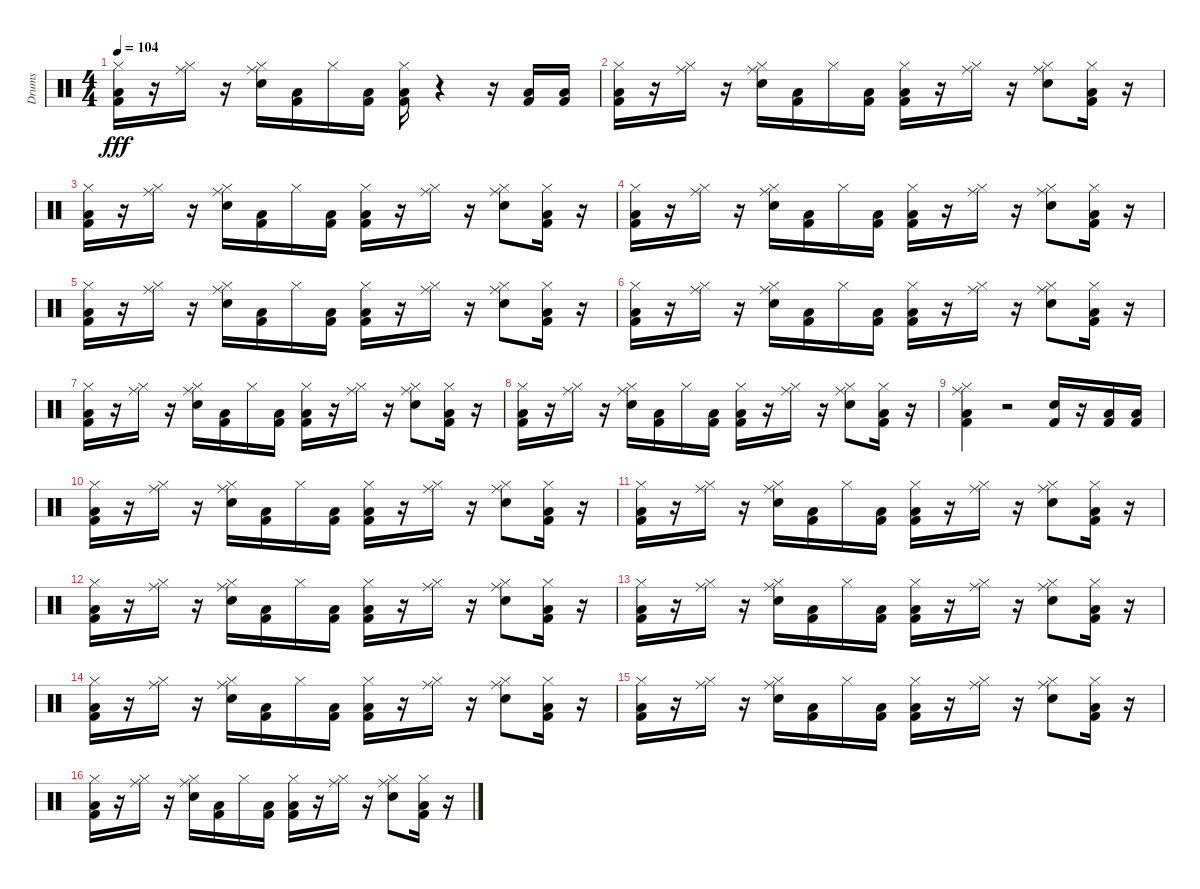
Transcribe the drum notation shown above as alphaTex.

\track ("Drums" "Drums") {instrument percussion}
\staff {score}
\articulation defaults
\ts (4 4)
\tempo 104
\clef neutral
\ks c
("Hi-Hat (closed)" "Kick (hit) 2" "Low Floor Tom (hit)").16{dy fff} r.16 ("Ride (middle)" "Hi-Hat (closed)").16 r.16 ("Hi-Hat (closed)" "Ride (middle)" "Electric Snare (hit)").16 ("Low Floor Tom (hit)" "Kick (hit) 2").16 "Hi-Hat (closed)".16 ("Kick (hit) 2" "Low Floor Tom (hit)").16 ("Kick (hit) 2" "Hi-Hat (closed)" "Low Floor Tom (hit)").16 r.4 r.16 ("Kick (hit) 2" "Low Floor Tom (hit)").16 ("Low Floor Tom (hit)" "Kick (hit) 2").16 |
("Kick (hit) 2" "Hi-Hat (closed)" "Low Floor Tom (hit)").16 r.16 ("Hi-Hat (closed)" "Ride (middle)").16 r.16 ("Ride (middle)" "Hi-Hat (closed)" "Electric Snare (hit)").16 ("Low Floor Tom (hit)" "Kick (hit) 2").16 "Hi-Hat (closed)".16 ("Low Floor Tom (hit)" "Kick (hit) 2").16 ("Kick (hit) 2" "Low Floor Tom (hit)" "Hi-Hat (closed)").16 r.16 ("Hi-Hat (closed)" "Ride (middle)").16 r.16 ("Hi-Hat (closed)" "Ride (middle)" "Electric Snare (hit)").8 ("Hi-Hat (closed)" "Low Floor Tom (hit)" "Kick (hit) 2").16 r.16 |
("Low Floor Tom (hit)" "Kick (hit) 2" "Hi-Hat (closed)").16 r.16 ("Ride (middle)" "Hi-Hat (closed)").16 r.16 ("Electric Snare (hit)" "Hi-Hat (closed)" "Ride (middle)").16 ("Low Floor Tom (hit)" "Kick (hit) 2").16 "Hi-Hat (closed)".16 ("Kick (hit) 2" "Low Floor Tom (hit)").16 ("Low Floor Tom (hit)" "Hi-Hat (closed)" "Kick (hit) 2").16 r.16 ("Ride (middle)" "Hi-Hat (closed)").16 r.16 ("Hi-Hat (closed)" "Ride (middle)" "Electric Snare (hit)").8 ("Kick (hit) 2" "Low Floor Tom (hit)" "Hi-Hat (closed)").16 r.16 |
("Hi-Hat (closed)" "Kick (hit) 2" "Low Floor Tom (hit)").16 r.16 ("Ride (middle)" "Hi-Hat (closed)").16 r.16 ("Electric Snare (hit)" "Hi-Hat (closed)" "Ride (middle)").16 ("Low Floor Tom (hit)" "Kick (hit) 2").16 "Hi-Hat (closed)".16 ("Kick (hit) 2" "Low Floor Tom (hit)").16 ("Hi-Hat (closed)" "Kick (hit) 2" "Low Floor Tom (hit)").16 r.16 ("Ride (middle)" "Hi-Hat (closed)").16 r.16 ("Electric Snare (hit)" "Hi-Hat (closed)" "Ride (middle)").8 ("Hi-Hat (closed)" "Low Floor Tom (hit)" "Kick (hit) 2").16 r.16 |
("Kick (hit) 2" "Low Floor Tom (hit)" "Hi-Hat (closed)").16 r.16 ("Hi-Hat (closed)" "Ride (middle)").16 r.16 ("Ride (middle)" "Electric Snare (hit)" "Hi-Hat (closed)").16 ("Low Floor Tom (hit)" "Kick (hit) 2").16 "Hi-Hat (closed)".16 ("Low Floor Tom (hit)" "Kick (hit) 2").16 ("Kick (hit) 2" "Low Floor Tom (hit)" "Hi-Hat (closed)").16 r.16 ("Hi-Hat (closed)" "Ride (middle)").16 r.16 ("Electric Snare (hit)" "Hi-Hat (closed)" "Ride (middle)").8 ("Kick (hit) 2" "Low Floor Tom (hit)" "Hi-Hat (closed)").16 r.16 |
("Low Floor Tom (hit)" "Kick (hit) 2" "Hi-Hat (closed)").16 r.16 ("Hi-Hat (closed)" "Ride (middle)").16 r.16 ("Hi-Hat (closed)" "Electric Snare (hit)" "Ride (middle)").16 ("Kick (hit) 2" "Low Floor Tom (hit)").16 "Hi-Hat (closed)".16 ("Kick (hit) 2" "Low Floor Tom (hit)").16 ("Kick (hit) 2" "Low Floor Tom (hit)" "Hi-Hat (closed)").16 r.16 ("Hi-Hat (closed)" "Ride (middle)").16 r.16 ("Hi-Hat (closed)" "Ride (middle)" "Electric Snare (hit)").8 ("Low Floor Tom (hit)" "Hi-Hat (closed)" "Kick (hit) 2").16 r.16 |
("Kick (hit) 2" "Hi-Hat (closed)" "Low Floor Tom (hit)").16 r.16 ("Hi-Hat (closed)" "Ride (middle)").16 r.16 ("Electric Snare (hit)" "Hi-Hat (closed)" "Ride (middle)").16 ("Low Floor Tom (hit)" "Kick (hit) 2").16 "Hi-Hat (closed)".16 ("Kick (hit) 2" "Low Floor Tom (hit)").16 ("Hi-Hat (closed)" "Kick (hit) 2" "Low Floor Tom (hit)").16 r.16 ("Ride (middle)" "Hi-Hat (closed)").16 r.16 ("Electric Snare (hit)" "Hi-Hat (closed)" "Ride (middle)").8 ("Low Floor Tom (hit)" "Hi-Hat (closed)" "Kick (hit) 2").16 r.16 |
("Low Floor Tom (hit)" "Hi-Hat (closed)" "Kick (hit) 2").16 r.16 ("Hi-Hat (closed)" "Ride (middle)").16 r.16 ("Ride (middle)" "Electric Snare (hit)" "Hi-Hat (closed)").16 ("Kick (hit) 2" "Low Floor Tom (hit)").16 "Hi-Hat (closed)".16 ("Kick (hit) 2" "Low Floor Tom (hit)").16 ("Hi-Hat (closed)" "Kick (hit) 2" "Low Floor Tom (hit)").16 r.16 ("Hi-Hat (closed)" "Ride (middle)").16 r.16 ("Hi-Hat (closed)" "Electric Snare (hit)" "Ride (middle)").8 ("Kick (hit) 2" "Hi-Hat (closed)" "Low Floor Tom (hit)").16 r.16 |
("Low Floor Tom (hit)" "Kick (hit) 2" "Hi-Hat (closed)" "Ride (middle)").4 r.2 ("Electric Snare (hit)" "Kick (hit) 2").16 r.16 ("Kick (hit) 2" "Low Floor Tom (hit)").16 ("Low Floor Tom (hit)" "Kick (hit) 2").16 |
("Hi-Hat (closed)" "Kick (hit) 2" "Low Floor Tom (hit)").16 r.16 ("Ride (middle)" "Hi-Hat (closed)").16 r.16 ("Electric Snare (hit)" "Hi-Hat (closed)" "Ride (middle)").16 ("Low Floor Tom (hit)" "Kick (hit) 2").16 "Hi-Hat (closed)".16 ("Low Floor Tom (hit)" "Kick (hit) 2").16 ("Low Floor Tom (hit)" "Hi-Hat (closed)" "Kick (hit) 2").16 r.16 ("Hi-Hat (closed)" "Ride (middle)").16 r.16 ("Hi-Hat (closed)" "Electric Snare (hit)" "Ride (middle)").8 ("Kick (hit) 2" "Low Floor Tom (hit)" "Hi-Hat (closed)").16 r.16 |
("Kick (hit) 2" "Low Floor Tom (hit)" "Hi-Hat (closed)").16 r.16 ("Ride (middle)" "Hi-Hat (closed)").16 r.16 ("Ride (middle)" "Electric Snare (hit)" "Hi-Hat (closed)").16 ("Kick (hit) 2" "Low Floor Tom (hit)").16 "Hi-Hat (closed)".16 ("Kick (hit) 2" "Low Floor Tom (hit)").16 ("Low Floor Tom (hit)" "Hi-Hat (closed)" "Kick (hit) 2").16 r.16 ("Ride (middle)" "Hi-Hat (closed)").16 r.16 ("Ride (middle)" "Electric Snare (hit)" "Hi-Hat (closed)").8 ("Kick (hit) 2" "Hi-Hat (closed)" "Low Floor Tom (hit)").16 r.16 |
("Low Floor Tom (hit)" "Kick (hit) 2" "Hi-Hat (closed)").16 r.16 ("Ride (middle)" "Hi-Hat (closed)").16 r.16 ("Ride (middle)" "Electric Snare (hit)" "Hi-Hat (closed)").16 ("Low Floor Tom (hit)" "Kick (hit) 2").16 "Hi-Hat (closed)".16 ("Low Floor Tom (hit)" "Kick (hit) 2").16 ("Low Floor Tom (hit)" "Hi-Hat (closed)" "Kick (hit) 2").16 r.16 ("Ride (middle)" "Hi-Hat (closed)").16 r.16 ("Ride (middle)" "Hi-Hat (closed)" "Electric Snare (hit)").8 ("Hi-Hat (closed)" "Kick (hit) 2" "Low Floor Tom (hit)").16 r.16 |
("Hi-Hat (closed)" "Kick (hit) 2" "Low Floor Tom (hit)").16 r.16 ("Ride (middle)" "Hi-Hat (closed)").16 r.16 ("Hi-Hat (closed)" "Ride (middle)" "Electric Snare (hit)").16 ("Low Floor Tom (hit)" "Kick (hit) 2").16 "Hi-Hat (closed)".16 ("Low Floor Tom (hit)" "Kick (hit) 2").16 ("Kick (hit) 2" "Hi-Hat (closed)" "Low Floor Tom (hit)").16 r.16 ("Ride (middle)" "Hi-Hat (closed)").16 r.16 ("Hi-Hat (closed)" "Ride (middle)" "Electric Snare (hit)").8 ("Kick (hit) 2" "Hi-Hat (closed)" "Low Floor Tom (hit)").16 r.16 |
("Low Floor Tom (hit)" "Kick (hit) 2" "Hi-Hat (closed)").16 r.16 ("Ride (middle)" "Hi-Hat (closed)").16 r.16 ("Electric Snare (hit)" "Hi-Hat (closed)" "Ride (middle)").16 ("Low Floor Tom (hit)" "Kick (hit) 2").16 "Hi-Hat (closed)".16 ("Kick (hit) 2" "Low Floor Tom (hit)").16 ("Low Floor Tom (hit)" "Kick (hit) 2" "Hi-Hat (closed)").16 r.16 ("Hi-Hat (closed)" "Ride (middle)").16 r.16 ("Ride (middle)" "Hi-Hat (closed)" "Electric Snare (hit)").8 ("Low Floor Tom (hit)" "Hi-Hat (closed)" "Kick (hit) 2").16 r.16 |
("Kick (hit) 2" "Low Floor Tom (hit)" "Hi-Hat (closed)").16 r.16 ("Hi-Hat (closed)" "Ride (middle)").16 r.16 ("Electric Snare (hit)" "Hi-Hat (closed)" "Ride (middle)").16 ("Kick (hit) 2" "Low Floor Tom (hit)").16 "Hi-Hat (closed)".16 ("Kick (hit) 2" "Low Floor Tom (hit)").16 ("Hi-Hat (closed)" "Low Floor Tom (hit)" "Kick (hit) 2").16 r.16 ("Hi-Hat (closed)" "Ride (middle)").16 r.16 ("Electric Snare (hit)" "Hi-Hat (closed)" "Ride (middle)").8 ("Hi-Hat (closed)" "Kick (hit) 2" "Low Floor Tom (hit)").16 r.16 |
("Kick (hit) 2" "Low Floor Tom (hit)" "Hi-Hat (closed)").16 r.16 ("Ride (middle)" "Hi-Hat (closed)").16 r.16 ("Electric Snare (hit)" "Hi-Hat (closed)" "Ride (middle)").16 ("Low Floor Tom (hit)" "Kick (hit) 2").16 "Hi-Hat (closed)".16 ("Low Floor Tom (hit)" "Kick (hit) 2").16 ("Low Floor Tom (hit)" "Hi-Hat (closed)" "Kick (hit) 2").16 r.16 ("Hi-Hat (closed)" "Ride (middle)").16 r.16 ("Hi-Hat (closed)" "Electric Snare (hit)" "Ride (middle)").8 ("Low Floor Tom (hit)" "Hi-Hat (closed)" "Kick (hit) 2").16 r.16
